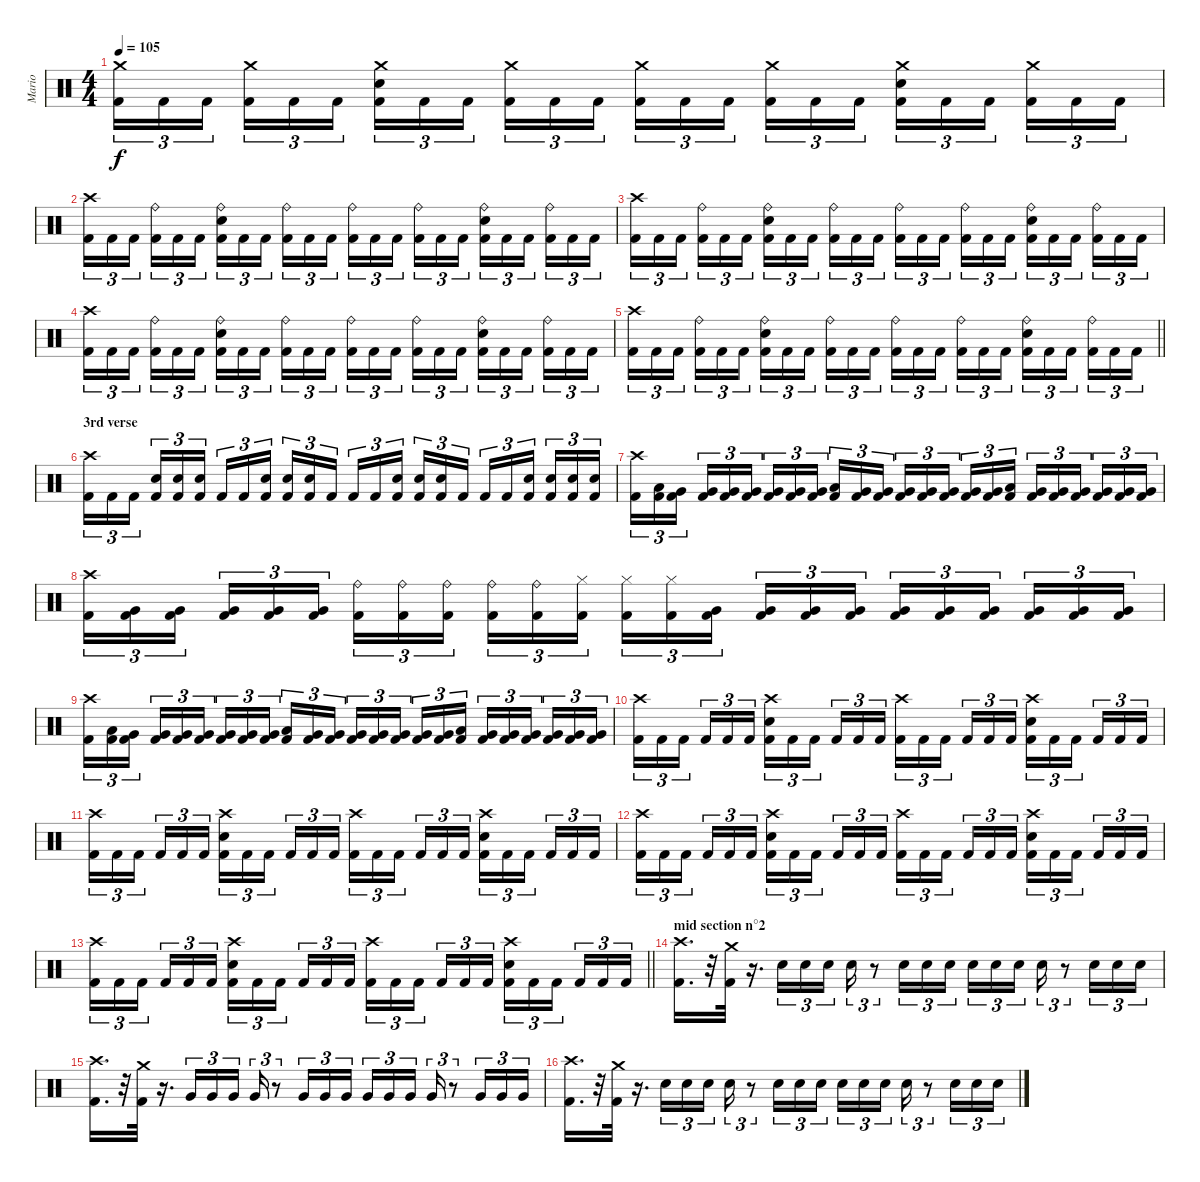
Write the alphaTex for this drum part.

\track ("Mario" "Mario") {instrument percussion}
\staff {score}
\articulation defaults
\ts (4 4)
\tempo 105
\clef neutral
\ks c
("Crash medium (hit)" "Kick (hit) 2").16{tu (3 2) dy f} "Kick (hit) 2".16{tu (3 2)} "Kick (hit) 2".16{tu (3 2) beam splitsecondary} ("Crash medium (hit)" "Kick (hit) 2").16{tu (3 2)} "Kick (hit) 2".16{tu (3 2)} "Kick (hit) 2".16{tu (3 2)} ("Crash medium (hit)" "Snare (hit) 2" "Kick (hit) 2").16{tu (3 2)} "Kick (hit) 2".16{tu (3 2)} "Kick (hit) 2".16{tu (3 2) beam splitsecondary} ("Crash medium (hit)" "Kick (hit) 2").16{tu (3 2)} "Kick (hit) 2".16{tu (3 2)} "Kick (hit) 2".16{tu (3 2)} ("Crash medium (hit)" "Kick (hit) 2").16{tu (3 2)} "Kick (hit) 2".16{tu (3 2)} "Kick (hit) 2".16{tu (3 2) beam splitsecondary} ("Crash medium (hit)" "Kick (hit) 2").16{tu (3 2)} "Kick (hit) 2".16{tu (3 2)} "Kick (hit) 2".16{tu (3 2)} ("Crash medium (hit)" "Snare (hit) 2" "Kick (hit) 2").16{tu (3 2)} "Kick (hit) 2".16{tu (3 2)} "Kick (hit) 2".16{tu (3 2) beam splitsecondary} ("Crash medium (hit)" "Kick (hit) 2").16{tu (3 2)} "Kick (hit) 2".16{tu (3 2)} "Kick (hit) 2".16{tu (3 2)} |
("Crash high (hit)" "Kick (hit) 2").16{tu (3 2)} "Kick (hit) 2".16{tu (3 2)} "Kick (hit) 2".16{tu (3 2) beam splitsecondary} ("Ride (bell)" "Kick (hit) 2").16{tu (3 2)} "Kick (hit) 2".16{tu (3 2)} "Kick (hit) 2".16{tu (3 2)} ("Ride (bell)" "Snare (hit) 2" "Kick (hit) 2").16{tu (3 2)} "Kick (hit) 2".16{tu (3 2)} "Kick (hit) 2".16{tu (3 2) beam splitsecondary} ("Ride (bell)" "Kick (hit) 2").16{tu (3 2)} "Kick (hit) 2".16{tu (3 2)} "Kick (hit) 2".16{tu (3 2)} ("Ride (bell)" "Kick (hit) 2").16{tu (3 2)} "Kick (hit) 2".16{tu (3 2)} "Kick (hit) 2".16{tu (3 2) beam splitsecondary} ("Ride (bell)" "Kick (hit) 2").16{tu (3 2)} "Kick (hit) 2".16{tu (3 2)} "Kick (hit) 2".16{tu (3 2)} ("Ride (bell)" "Snare (hit) 2" "Kick (hit) 2").16{tu (3 2)} "Kick (hit) 2".16{tu (3 2)} "Kick (hit) 2".16{tu (3 2) beam splitsecondary} ("Ride (bell)" "Kick (hit) 2").16{tu (3 2)} "Kick (hit) 2".16{tu (3 2)} "Kick (hit) 2".16{tu (3 2)} |
("Crash high (hit)" "Kick (hit) 2").16{tu (3 2)} "Kick (hit) 2".16{tu (3 2)} "Kick (hit) 2".16{tu (3 2) beam splitsecondary} ("Ride (bell)" "Kick (hit) 2").16{tu (3 2)} "Kick (hit) 2".16{tu (3 2)} "Kick (hit) 2".16{tu (3 2)} ("Ride (bell)" "Snare (hit) 2" "Kick (hit) 2").16{tu (3 2)} "Kick (hit) 2".16{tu (3 2)} "Kick (hit) 2".16{tu (3 2) beam splitsecondary} ("Ride (bell)" "Kick (hit) 2").16{tu (3 2)} "Kick (hit) 2".16{tu (3 2)} "Kick (hit) 2".16{tu (3 2)} ("Ride (bell)" "Kick (hit) 2").16{tu (3 2)} "Kick (hit) 2".16{tu (3 2)} "Kick (hit) 2".16{tu (3 2) beam splitsecondary} ("Ride (bell)" "Kick (hit) 2").16{tu (3 2)} "Kick (hit) 2".16{tu (3 2)} "Kick (hit) 2".16{tu (3 2)} ("Ride (bell)" "Snare (hit) 2" "Kick (hit) 2").16{tu (3 2)} "Kick (hit) 2".16{tu (3 2)} "Kick (hit) 2".16{tu (3 2) beam splitsecondary} ("Ride (bell)" "Kick (hit) 2").16{tu (3 2)} "Kick (hit) 2".16{tu (3 2)} "Kick (hit) 2".16{tu (3 2)} |
("Crash high (hit)" "Kick (hit) 2").16{tu (3 2)} "Kick (hit) 2".16{tu (3 2)} "Kick (hit) 2".16{tu (3 2) beam splitsecondary} ("Ride (bell)" "Kick (hit) 2").16{tu (3 2)} "Kick (hit) 2".16{tu (3 2)} "Kick (hit) 2".16{tu (3 2)} ("Ride (bell)" "Snare (hit) 2" "Kick (hit) 2").16{tu (3 2)} "Kick (hit) 2".16{tu (3 2)} "Kick (hit) 2".16{tu (3 2) beam splitsecondary} ("Ride (bell)" "Kick (hit) 2").16{tu (3 2)} "Kick (hit) 2".16{tu (3 2)} "Kick (hit) 2".16{tu (3 2)} ("Ride (bell)" "Kick (hit) 2").16{tu (3 2)} "Kick (hit) 2".16{tu (3 2)} "Kick (hit) 2".16{tu (3 2) beam splitsecondary} ("Ride (bell)" "Kick (hit) 2").16{tu (3 2)} "Kick (hit) 2".16{tu (3 2)} "Kick (hit) 2".16{tu (3 2)} ("Ride (bell)" "Snare (hit) 2" "Kick (hit) 2").16{tu (3 2)} "Kick (hit) 2".16{tu (3 2)} "Kick (hit) 2".16{tu (3 2) beam splitsecondary} ("Ride (bell)" "Kick (hit) 2").16{tu (3 2)} "Kick (hit) 2".16{tu (3 2)} "Kick (hit) 2".16{tu (3 2)} |
\barLineRight lightlight
("Crash high (hit)" "Kick (hit) 2").16{tu (3 2)} "Kick (hit) 2".16{tu (3 2)} "Kick (hit) 2".16{tu (3 2) beam splitsecondary} ("Ride (bell)" "Kick (hit) 2").16{tu (3 2)} "Kick (hit) 2".16{tu (3 2)} "Kick (hit) 2".16{tu (3 2)} ("Ride (bell)" "Snare (hit) 2" "Kick (hit) 2").16{tu (3 2)} "Kick (hit) 2".16{tu (3 2)} "Kick (hit) 2".16{tu (3 2) beam splitsecondary} ("Ride (bell)" "Kick (hit) 2").16{tu (3 2)} "Kick (hit) 2".16{tu (3 2)} "Kick (hit) 2".16{tu (3 2)} ("Ride (bell)" "Kick (hit) 2").16{tu (3 2)} "Kick (hit) 2".16{tu (3 2)} "Kick (hit) 2".16{tu (3 2) beam splitsecondary} ("Ride (bell)" "Kick (hit) 2").16{tu (3 2)} "Kick (hit) 2".16{tu (3 2)} "Kick (hit) 2".16{tu (3 2)} ("Ride (bell)" "Snare (hit) 2" "Kick (hit) 2").16{tu (3 2)} "Kick (hit) 2".16{tu (3 2)} "Kick (hit) 2".16{tu (3 2) beam splitsecondary} ("Ride (bell)" "Kick (hit) 2").16{tu (3 2)} "Kick (hit) 2".16{tu (3 2)} "Kick (hit) 2".16{tu (3 2)} |
\section ("" "3rd verse")
("Crash high (hit)" "Kick (hit) 2").16{tu (3 2)} "Kick (hit) 2".16{tu (3 2)} "Kick (hit) 2".16{tu (3 2) beam splitsecondary} ("Snare (hit) 2" "Kick (hit) 2").16{tu (3 2)} ("Snare (hit) 2" "Kick (hit) 2").16{tu (3 2)} ("Snare (hit) 2" "Kick (hit) 2").16{tu (3 2)} "Kick (hit) 2".16{tu (3 2)} "Kick (hit) 2".16{tu (3 2)} ("Snare (hit) 2" "Kick (hit) 2").16{tu (3 2) beam splitsecondary} ("Snare (hit) 2" "Kick (hit) 2").16{tu (3 2)} ("Snare (hit) 2" "Kick (hit) 2").16{tu (3 2)} "Kick (hit) 2".16{tu (3 2)} "Kick (hit) 2".16{tu (3 2)} "Kick (hit) 2".16{tu (3 2)} ("Snare (hit) 2" "Kick (hit) 2").16{tu (3 2) beam splitsecondary} ("Snare (hit) 2" "Kick (hit) 2").16{tu (3 2)} ("Snare (hit) 2" "Kick (hit) 2").16{tu (3 2)} "Kick (hit) 2".16{tu (3 2)} "Kick (hit) 2".16{tu (3 2)} "Kick (hit) 2".16{tu (3 2)} ("Snare (hit) 2" "Kick (hit) 2").16{tu (3 2) beam splitsecondary} ("Snare (hit) 2" "Kick (hit) 2").16{tu (3 2)} ("Snare (hit) 2" "Kick (hit) 2").16{tu (3 2)} ("Snare (hit) 2" "Kick (hit) 2").16{tu (3 2)} |
("Crash high (hit)" "Kick (hit) 2").16{tu (3 2)} ("Low Tom (hit)" "Kick (hit) 2").16{tu (3 2)} ("Very Low Tom (hit)" "Kick (hit) 2").16{tu (3 2) beam splitsecondary} ("Very Low Tom (hit)" "Kick (hit) 2").16{tu (3 2)} ("Very Low Tom (hit)" "Kick (hit) 2").16{tu (3 2)} ("Very Low Tom (hit)" "Kick (hit) 2").16{tu (3 2)} ("Very Low Tom (hit)" "Kick (hit) 2").16{tu (3 2)} ("Very Low Tom (hit)" "Kick (hit) 2").16{tu (3 2)} ("Very Low Tom (hit)" "Kick (hit) 2").16{tu (3 2) beam splitsecondary} ("Low Tom (hit)" "Kick (hit) 2").16{tu (3 2)} ("Very Low Tom (hit)" "Kick (hit) 2").16{tu (3 2)} ("Very Low Tom (hit)" "Kick (hit) 2").16{tu (3 2)} ("Very Low Tom (hit)" "Kick (hit) 2").16{tu (3 2)} ("Very Low Tom (hit)" "Kick (hit) 2").16{tu (3 2)} ("Very Low Tom (hit)" "Kick (hit) 2").16{tu (3 2) beam splitsecondary} ("Very Low Tom (hit)" "Kick (hit) 2").16{tu (3 2)} ("Very Low Tom (hit)" "Kick (hit) 2").16{tu (3 2)} ("Low Tom (hit)" "Kick (hit) 2").16{tu (3 2)} ("Very Low Tom (hit)" "Kick (hit) 2").16{tu (3 2)} ("Very Low Tom (hit)" "Kick (hit) 2").16{tu (3 2)} ("Very Low Tom (hit)" "Kick (hit) 2").16{tu (3 2) beam splitsecondary} ("Very Low Tom (hit)" "Kick (hit) 2").16{tu (3 2)} ("Very Low Tom (hit)" "Kick (hit) 2").16{tu (3 2)} ("Very Low Tom (hit)" "Kick (hit) 2").16{tu (3 2)} |
("Crash high (hit)" "Kick (hit) 2").16{tu (3 2)} ("Very Low Tom (hit)" "Kick (hit) 2").16{tu (3 2)} ("Very Low Tom (hit)" "Kick (hit) 2").16{tu (3 2) beam splitsecondary} ("Very Low Tom (hit)" "Kick (hit) 2").16{tu (3 2)} ("Very Low Tom (hit)" "Kick (hit) 2").16{tu (3 2)} ("Very Low Tom (hit)" "Kick (hit) 2").16{tu (3 2)} ("Ride (bell)" "Kick (hit) 2").16{tu (3 2)} ("Ride (bell)" "Kick (hit) 2").16{tu (3 2)} ("Ride (bell)" "Kick (hit) 2").16{tu (3 2) beam splitsecondary} ("Ride (bell)" "Kick (hit) 2").16{tu (3 2)} ("Ride (bell)" "Kick (hit) 2").16{tu (3 2)} ("Hi-Hat (closed)" "Kick (hit) 2").16{tu (3 2)} ("Hi-Hat (closed)" "Kick (hit) 2").16{tu (3 2)} ("Hi-Hat (closed)" "Kick (hit) 2").16{tu (3 2)} ("Very Low Tom (hit)" "Kick (hit) 2").16{tu (3 2) beam splitsecondary} ("Very Low Tom (hit)" "Kick (hit) 2").16{tu (3 2)} ("Very Low Tom (hit)" "Kick (hit) 2").16{tu (3 2)} ("Very Low Tom (hit)" "Kick (hit) 2").16{tu (3 2)} ("Very Low Tom (hit)" "Kick (hit) 2").16{tu (3 2)} ("Very Low Tom (hit)" "Kick (hit) 2").16{tu (3 2)} ("Very Low Tom (hit)" "Kick (hit) 2").16{tu (3 2) beam splitsecondary} ("Very Low Tom (hit)" "Kick (hit) 2").16{tu (3 2)} ("Very Low Tom (hit)" "Kick (hit) 2").16{tu (3 2)} ("Very Low Tom (hit)" "Kick (hit) 2").16{tu (3 2)} |
("Crash high (hit)" "Kick (hit) 2").16{tu (3 2)} ("Low Tom (hit)" "Kick (hit) 2").16{tu (3 2)} ("Very Low Tom (hit)" "Kick (hit) 2").16{tu (3 2) beam splitsecondary} ("Very Low Tom (hit)" "Kick (hit) 2").16{tu (3 2)} ("Very Low Tom (hit)" "Kick (hit) 2").16{tu (3 2)} ("Very Low Tom (hit)" "Kick (hit) 2").16{tu (3 2)} ("Very Low Tom (hit)" "Kick (hit) 2").16{tu (3 2)} ("Very Low Tom (hit)" "Kick (hit) 2").16{tu (3 2)} ("Very Low Tom (hit)" "Kick (hit) 2").16{tu (3 2) beam splitsecondary} ("Low Tom (hit)" "Kick (hit) 2").16{tu (3 2)} ("Very Low Tom (hit)" "Kick (hit) 2").16{tu (3 2)} ("Very Low Tom (hit)" "Kick (hit) 2").16{tu (3 2)} ("Very Low Tom (hit)" "Kick (hit) 2").16{tu (3 2)} ("Very Low Tom (hit)" "Kick (hit) 2").16{tu (3 2)} ("Very Low Tom (hit)" "Kick (hit) 2").16{tu (3 2) beam splitsecondary} ("Very Low Tom (hit)" "Kick (hit) 2").16{tu (3 2)} ("Very Low Tom (hit)" "Kick (hit) 2").16{tu (3 2)} ("Low Tom (hit)" "Kick (hit) 2").16{tu (3 2)} ("Very Low Tom (hit)" "Kick (hit) 2").16{tu (3 2)} ("Very Low Tom (hit)" "Kick (hit) 2").16{tu (3 2)} ("Very Low Tom (hit)" "Kick (hit) 2").16{tu (3 2) beam splitsecondary} ("Very Low Tom (hit)" "Kick (hit) 2").16{tu (3 2)} ("Very Low Tom (hit)" "Kick (hit) 2").16{tu (3 2)} ("Very Low Tom (hit)" "Kick (hit) 2").16{tu (3 2)} |
("Crash high (hit)" "Kick (hit) 2").16{tu (3 2)} "Kick (hit) 2".16{tu (3 2)} "Kick (hit) 2".16{tu (3 2) beam splitsecondary} "Kick (hit) 2".16{tu (3 2)} "Kick (hit) 2".16{tu (3 2)} "Kick (hit) 2".16{tu (3 2)} ("Crash high (hit)" "Snare (hit) 2" "Kick (hit) 2").16{tu (3 2)} "Kick (hit) 2".16{tu (3 2)} "Kick (hit) 2".16{tu (3 2) beam splitsecondary} "Kick (hit) 2".16{tu (3 2)} "Kick (hit) 2".16{tu (3 2)} "Kick (hit) 2".16{tu (3 2)} ("Crash high (hit)" "Kick (hit) 2").16{tu (3 2)} "Kick (hit) 2".16{tu (3 2)} "Kick (hit) 2".16{tu (3 2) beam splitsecondary} "Kick (hit) 2".16{tu (3 2)} "Kick (hit) 2".16{tu (3 2)} "Kick (hit) 2".16{tu (3 2)} ("Crash high (hit)" "Snare (hit) 2" "Kick (hit) 2").16{tu (3 2)} "Kick (hit) 2".16{tu (3 2)} "Kick (hit) 2".16{tu (3 2) beam splitsecondary} "Kick (hit) 2".16{tu (3 2)} "Kick (hit) 2".16{tu (3 2)} "Kick (hit) 2".16{tu (3 2)} |
("Crash high (hit)" "Kick (hit) 2").16{tu (3 2)} "Kick (hit) 2".16{tu (3 2)} "Kick (hit) 2".16{tu (3 2) beam splitsecondary} "Kick (hit) 2".16{tu (3 2)} "Kick (hit) 2".16{tu (3 2)} "Kick (hit) 2".16{tu (3 2)} ("Crash high (hit)" "Snare (hit) 2" "Kick (hit) 2").16{tu (3 2)} "Kick (hit) 2".16{tu (3 2)} "Kick (hit) 2".16{tu (3 2) beam splitsecondary} "Kick (hit) 2".16{tu (3 2)} "Kick (hit) 2".16{tu (3 2)} "Kick (hit) 2".16{tu (3 2)} ("Crash high (hit)" "Kick (hit) 2").16{tu (3 2)} "Kick (hit) 2".16{tu (3 2)} "Kick (hit) 2".16{tu (3 2) beam splitsecondary} "Kick (hit) 2".16{tu (3 2)} "Kick (hit) 2".16{tu (3 2)} "Kick (hit) 2".16{tu (3 2)} ("Crash high (hit)" "Snare (hit) 2" "Kick (hit) 2").16{tu (3 2)} "Kick (hit) 2".16{tu (3 2)} "Kick (hit) 2".16{tu (3 2) beam splitsecondary} "Kick (hit) 2".16{tu (3 2)} "Kick (hit) 2".16{tu (3 2)} "Kick (hit) 2".16{tu (3 2)} |
("Crash high (hit)" "Kick (hit) 2").16{tu (3 2)} "Kick (hit) 2".16{tu (3 2)} "Kick (hit) 2".16{tu (3 2) beam splitsecondary} "Kick (hit) 2".16{tu (3 2)} "Kick (hit) 2".16{tu (3 2)} "Kick (hit) 2".16{tu (3 2)} ("Crash high (hit)" "Snare (hit) 2" "Kick (hit) 2").16{tu (3 2)} "Kick (hit) 2".16{tu (3 2)} "Kick (hit) 2".16{tu (3 2) beam splitsecondary} "Kick (hit) 2".16{tu (3 2)} "Kick (hit) 2".16{tu (3 2)} "Kick (hit) 2".16{tu (3 2)} ("Crash high (hit)" "Kick (hit) 2").16{tu (3 2)} "Kick (hit) 2".16{tu (3 2)} "Kick (hit) 2".16{tu (3 2) beam splitsecondary} "Kick (hit) 2".16{tu (3 2)} "Kick (hit) 2".16{tu (3 2)} "Kick (hit) 2".16{tu (3 2)} ("Crash high (hit)" "Snare (hit) 2" "Kick (hit) 2").16{tu (3 2)} "Kick (hit) 2".16{tu (3 2)} "Kick (hit) 2".16{tu (3 2) beam splitsecondary} "Kick (hit) 2".16{tu (3 2)} "Kick (hit) 2".16{tu (3 2)} "Kick (hit) 2".16{tu (3 2)} |
\barLineRight lightlight
("Crash high (hit)" "Kick (hit) 2").16{tu (3 2)} "Kick (hit) 2".16{tu (3 2)} "Kick (hit) 2".16{tu (3 2) beam splitsecondary} "Kick (hit) 2".16{tu (3 2)} "Kick (hit) 2".16{tu (3 2)} "Kick (hit) 2".16{tu (3 2)} ("Crash high (hit)" "Snare (hit) 2" "Kick (hit) 2").16{tu (3 2)} "Kick (hit) 2".16{tu (3 2)} "Kick (hit) 2".16{tu (3 2) beam splitsecondary} "Kick (hit) 2".16{tu (3 2)} "Kick (hit) 2".16{tu (3 2)} "Kick (hit) 2".16{tu (3 2)} ("Crash high (hit)" "Kick (hit) 2").16{tu (3 2)} "Kick (hit) 2".16{tu (3 2)} "Kick (hit) 2".16{tu (3 2) beam splitsecondary} "Kick (hit) 2".16{tu (3 2)} "Kick (hit) 2".16{tu (3 2)} "Kick (hit) 2".16{tu (3 2)} ("Crash high (hit)" "Snare (hit) 2" "Kick (hit) 2").16{tu (3 2)} "Kick (hit) 2".16{tu (3 2)} "Kick (hit) 2".16{tu (3 2) beam splitsecondary} "Kick (hit) 2".16{tu (3 2)} "Kick (hit) 2".16{tu (3 2)} "Kick (hit) 2".16{tu (3 2)} |
\section ("" "mid section n°2")
("Crash high (hit)" "Kick (hit) 2").16{d} r.32 ("Crash medium (hit)" "Kick (hit) 2").32 r.16{d} "Snare (hit) 2".16{tu (3 2)} "Snare (hit) 2".16{tu (3 2)} "Snare (hit) 2".16{tu (3 2) beam splitsecondary} "Snare (hit) 2".16{tu (3 2)} r.8{tu (3 2)} "Snare (hit) 2".16{tu (3 2)} "Snare (hit) 2".16{tu (3 2)} "Snare (hit) 2".16{tu (3 2) beam splitsecondary} "Snare (hit) 2".16{tu (3 2)} "Snare (hit) 2".16{tu (3 2)} "Snare (hit) 2".16{tu (3 2)} "Snare (hit) 2".16{tu (3 2)} r.8{tu (3 2)} "Snare (hit) 2".16{tu (3 2)} "Snare (hit) 2".16{tu (3 2)} "Snare (hit) 2".16{tu (3 2)} |
("Crash high (hit)" "Kick (hit) 2").16{d} r.32 ("Crash medium (hit)" "Kick (hit) 2").32 r.16{d} "Very Low Tom (hit)".16{tu (3 2)} "Very Low Tom (hit)".16{tu (3 2)} "Very Low Tom (hit)".16{tu (3 2) beam splitsecondary} "Very Low Tom (hit)".16{tu (3 2)} r.8{tu (3 2)} "Very Low Tom (hit)".16{tu (3 2)} "Very Low Tom (hit)".16{tu (3 2)} "Very Low Tom (hit)".16{tu (3 2) beam splitsecondary} "Very Low Tom (hit)".16{tu (3 2)} "Very Low Tom (hit)".16{tu (3 2)} "Very Low Tom (hit)".16{tu (3 2)} "Very Low Tom (hit)".16{tu (3 2)} r.8{tu (3 2)} "Very Low Tom (hit)".16{tu (3 2)} "Very Low Tom (hit)".16{tu (3 2)} "Very Low Tom (hit)".16{tu (3 2)} |
("Crash high (hit)" "Kick (hit) 2").16{d} r.32 ("Crash medium (hit)" "Kick (hit) 2").32 r.16{d} "Snare (hit) 2".16{tu (3 2)} "Snare (hit) 2".16{tu (3 2)} "Snare (hit) 2".16{tu (3 2) beam splitsecondary} "Snare (hit) 2".16{tu (3 2)} r.8{tu (3 2)} "Snare (hit) 2".16{tu (3 2)} "Snare (hit) 2".16{tu (3 2)} "Snare (hit) 2".16{tu (3 2) beam splitsecondary} "Snare (hit) 2".16{tu (3 2)} "Snare (hit) 2".16{tu (3 2)} "Snare (hit) 2".16{tu (3 2)} "Snare (hit) 2".16{tu (3 2)} r.8{tu (3 2)} "Snare (hit) 2".16{tu (3 2)} "Snare (hit) 2".16{tu (3 2)} "Snare (hit) 2".16{tu (3 2)}
